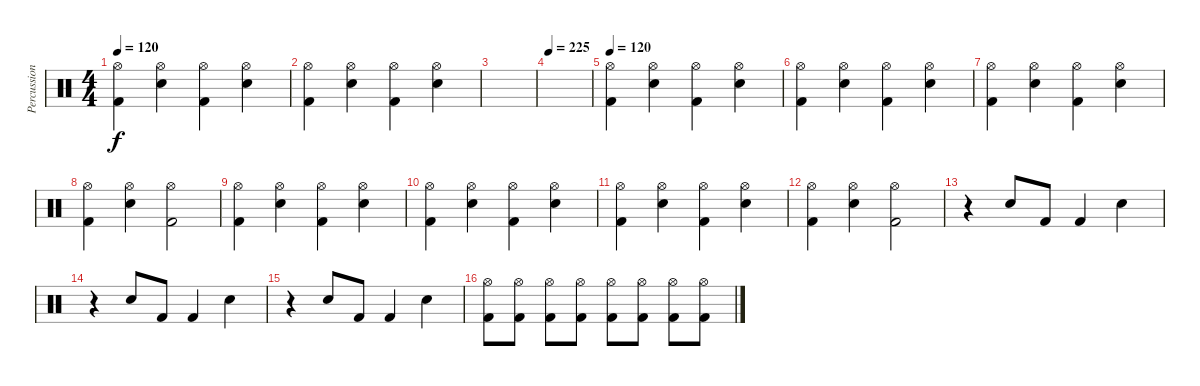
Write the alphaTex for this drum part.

\track ("Percussion" "Percussion") {instrument percussion}
\staff {score}
\articulation defaults
\ts (4 4)
\tempo 120
\clef neutral
\ks c
("Kick (hit) 2" "Hi-Hat (open)").4{dy f} ("Electric Snare (hit)" "Hi-Hat (open)").4 ("Kick (hit) 2" "Hi-Hat (open)").4 ("Electric Snare (hit)" "Hi-Hat (open)").4 |
("Kick (hit) 2" "Hi-Hat (open)").4 ("Electric Snare (hit)" "Hi-Hat (open)").4 ("Kick (hit) 2" "Hi-Hat (open)").4 ("Electric Snare (hit)" "Hi-Hat (open)").4 |
|
\tempo 225
|
\tempo 120
("Kick (hit) 2" "Hi-Hat (open)").4 ("Electric Snare (hit)" "Hi-Hat (open)").4 ("Kick (hit) 2" "Hi-Hat (open)").4 ("Electric Snare (hit)" "Hi-Hat (open)").4 |
("Kick (hit) 2" "Hi-Hat (open)").4 ("Electric Snare (hit)" "Hi-Hat (open)").4 ("Kick (hit) 2" "Hi-Hat (open)").4 ("Electric Snare (hit)" "Hi-Hat (open)").4 |
("Kick (hit) 2" "Hi-Hat (open)").4 ("Electric Snare (hit)" "Hi-Hat (open)").4 ("Kick (hit) 2" "Hi-Hat (open)").4 ("Electric Snare (hit)" "Hi-Hat (open)").4 |
("Kick (hit) 2" "Hi-Hat (open)").4 ("Electric Snare (hit)" "Hi-Hat (open)").4 ("Kick (hit) 2" "Hi-Hat (open)").2 |
("Kick (hit) 2" "Hi-Hat (open)").4 ("Electric Snare (hit)" "Hi-Hat (open)").4 ("Kick (hit) 2" "Hi-Hat (open)").4 ("Electric Snare (hit)" "Hi-Hat (open)").4 |
("Kick (hit) 2" "Hi-Hat (open)").4 ("Electric Snare (hit)" "Hi-Hat (open)").4 ("Kick (hit) 2" "Hi-Hat (open)").4 ("Electric Snare (hit)" "Hi-Hat (open)").4 |
("Kick (hit) 2" "Hi-Hat (open)").4 ("Electric Snare (hit)" "Hi-Hat (open)").4 ("Kick (hit) 2" "Hi-Hat (open)").4 ("Electric Snare (hit)" "Hi-Hat (open)").4 |
("Kick (hit) 2" "Hi-Hat (open)").4 ("Electric Snare (hit)" "Hi-Hat (open)").4 ("Kick (hit) 2" "Hi-Hat (open)").2 |
r.4 "Electric Snare (hit)".8 "Kick (hit) 2".8 "Kick (hit) 2".4 "Electric Snare (hit)".4 |
r.4 "Electric Snare (hit)".8 "Kick (hit) 2".8 "Kick (hit) 2".4 "Electric Snare (hit)".4 |
r.4 "Electric Snare (hit)".8 "Kick (hit) 2".8 "Kick (hit) 2".4 "Electric Snare (hit)".4 |
("Kick (hit) 2" "Hi-Hat (open)").8 ("Kick (hit) 2" "Hi-Hat (open)").8 ("Kick (hit) 2" "Hi-Hat (open)").8 ("Kick (hit) 2" "Hi-Hat (open)").8 ("Kick (hit) 2" "Hi-Hat (open)").8 ("Kick (hit) 2" "Hi-Hat (open)").8 ("Kick (hit) 2" "Hi-Hat (open)").8 ("Kick (hit) 2" "Hi-Hat (open)").8
